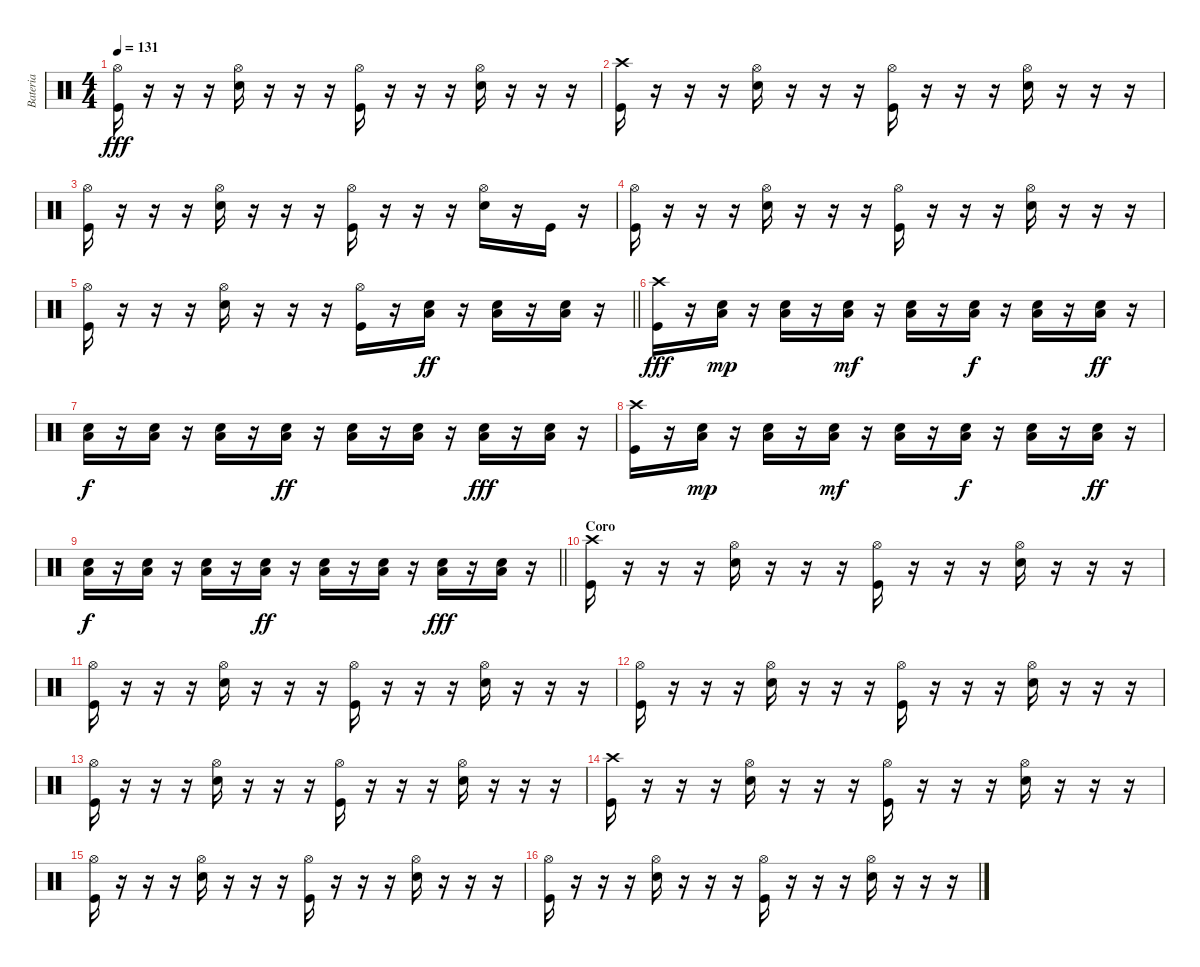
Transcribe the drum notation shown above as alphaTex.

\track ("Bateria" "Bateria") {instrument percussion}
\staff {score}
\articulation defaults
\ts (4 4)
\tempo 131
\clef neutral
\ks c
("Hi-Hat (open)" "Kick (hit)").16{dy fff} r.16 r.16 r.16 ("Hi-Hat (open)" "Electric Snare (hit)").16 r.16 r.16 r.16 ("Hi-Hat (open)" "Kick (hit)").16 r.16 r.16 r.16 ("Hi-Hat (open)" "Electric Snare (hit)").16 r.16 r.16 r.16 |
("Crash high (hit)" "Kick (hit)").16 r.16 r.16 r.16 ("Hi-Hat (open)" "Electric Snare (hit)").16 r.16 r.16 r.16 ("Hi-Hat (open)" "Kick (hit)").16 r.16 r.16 r.16 ("Hi-Hat (open)" "Electric Snare (hit)").16 r.16 r.16 r.16 |
("Hi-Hat (open)" "Kick (hit)").16 r.16 r.16 r.16 ("Hi-Hat (open)" "Electric Snare (hit)").16 r.16 r.16 r.16 ("Hi-Hat (open)" "Kick (hit)").16 r.16 r.16 r.16 ("Hi-Hat (open)" "Electric Snare (hit)").16 r.16 "Kick (hit)".16 r.16 |
("Hi-Hat (open)" "Kick (hit)").16 r.16 r.16 r.16 ("Hi-Hat (open)" "Electric Snare (hit)").16 r.16 r.16 r.16 ("Hi-Hat (open)" "Kick (hit)").16 r.16 r.16 r.16 ("Hi-Hat (open)" "Electric Snare (hit)").16 r.16 r.16 r.16 |
\barLineRight lightlight
("Hi-Hat (open)" "Kick (hit)").16 r.16 r.16 r.16 ("Hi-Hat (open)" "Electric Snare (hit)").16 r.16 r.16 r.16 ("Hi-Hat (open)" "Kick (hit)").16 r.16 ("Electric Snare (hit)" "Low Floor Tom (hit)").16{dy ff} r.16 ("Electric Snare (hit)" "Low Floor Tom (hit)").16 r.16 ("Electric Snare (hit)" "Low Floor Tom (hit)").16 r.16 |
("Crash high (hit)" "Kick (hit)").16{dy fff} r.16 ("Electric Snare (hit)" "Low Floor Tom (hit)").16{dy mp} r.16 ("Electric Snare (hit)" "Low Floor Tom (hit)").16 r.16 ("Electric Snare (hit)" "Low Floor Tom (hit)").16{dy mf} r.16 ("Electric Snare (hit)" "Low Floor Tom (hit)").16 r.16 ("Electric Snare (hit)" "Low Floor Tom (hit)").16{dy f} r.16 ("Electric Snare (hit)" "Low Floor Tom (hit)").16 r.16 ("Electric Snare (hit)" "Low Floor Tom (hit)").16{dy ff} r.16 |
("Electric Snare (hit)" "Low Floor Tom (hit)").16{dy f} r.16 ("Electric Snare (hit)" "Low Floor Tom (hit)").16 r.16 ("Electric Snare (hit)" "Low Floor Tom (hit)").16 r.16 ("Electric Snare (hit)" "Low Floor Tom (hit)").16{dy ff} r.16 ("Electric Snare (hit)" "Low Floor Tom (hit)").16 r.16 ("Electric Snare (hit)" "Low Floor Tom (hit)").16 r.16 ("Electric Snare (hit)" "Low Floor Tom (hit)").16{dy fff} r.16 ("Electric Snare (hit)" "Low Floor Tom (hit)").16 r.16 |
("Crash high (hit)" "Kick (hit)").16 r.16 ("Electric Snare (hit)" "Low Floor Tom (hit)").16{dy mp} r.16 ("Electric Snare (hit)" "Low Floor Tom (hit)").16 r.16 ("Electric Snare (hit)" "Low Floor Tom (hit)").16{dy mf} r.16 ("Electric Snare (hit)" "Low Floor Tom (hit)").16 r.16 ("Electric Snare (hit)" "Low Floor Tom (hit)").16{dy f} r.16 ("Electric Snare (hit)" "Low Floor Tom (hit)").16 r.16 ("Electric Snare (hit)" "Low Floor Tom (hit)").16{dy ff} r.16 |
\barLineRight lightlight
("Electric Snare (hit)" "Low Floor Tom (hit)").16{dy f} r.16 ("Electric Snare (hit)" "Low Floor Tom (hit)").16 r.16 ("Electric Snare (hit)" "Low Floor Tom (hit)").16 r.16 ("Electric Snare (hit)" "Low Floor Tom (hit)").16{dy ff} r.16 ("Electric Snare (hit)" "Low Floor Tom (hit)").16 r.16 ("Electric Snare (hit)" "Low Floor Tom (hit)").16 r.16 ("Electric Snare (hit)" "Low Floor Tom (hit)").16{dy fff} r.16 ("Electric Snare (hit)" "Low Floor Tom (hit)").16 r.16 |
\section ("" "Coro")
("Crash high (hit)" "Kick (hit)").16 r.16 r.16 r.16 ("Hi-Hat (open)" "Electric Snare (hit)").16 r.16 r.16 r.16 ("Hi-Hat (open)" "Kick (hit)").16 r.16 r.16 r.16 ("Hi-Hat (open)" "Electric Snare (hit)").16 r.16 r.16 r.16 |
("Hi-Hat (open)" "Kick (hit)").16 r.16 r.16 r.16 ("Hi-Hat (open)" "Electric Snare (hit)").16 r.16 r.16 r.16 ("Hi-Hat (open)" "Kick (hit)").16 r.16 r.16 r.16 ("Hi-Hat (open)" "Electric Snare (hit)").16 r.16 r.16 r.16 |
("Hi-Hat (open)" "Kick (hit)").16 r.16 r.16 r.16 ("Hi-Hat (open)" "Electric Snare (hit)").16 r.16 r.16 r.16 ("Hi-Hat (open)" "Kick (hit)").16 r.16 r.16 r.16 ("Hi-Hat (open)" "Electric Snare (hit)").16 r.16 r.16 r.16 |
("Hi-Hat (open)" "Kick (hit)").16 r.16 r.16 r.16 ("Hi-Hat (open)" "Electric Snare (hit)").16 r.16 r.16 r.16 ("Hi-Hat (open)" "Kick (hit)").16 r.16 r.16 r.16 ("Hi-Hat (open)" "Electric Snare (hit)").16 r.16 r.16 r.16 |
("Crash high (hit)" "Kick (hit)").16 r.16 r.16 r.16 ("Hi-Hat (open)" "Electric Snare (hit)").16 r.16 r.16 r.16 ("Hi-Hat (open)" "Kick (hit)").16 r.16 r.16 r.16 ("Hi-Hat (open)" "Electric Snare (hit)").16 r.16 r.16 r.16 |
("Hi-Hat (open)" "Kick (hit)").16 r.16 r.16 r.16 ("Hi-Hat (open)" "Electric Snare (hit)").16 r.16 r.16 r.16 ("Hi-Hat (open)" "Kick (hit)").16 r.16 r.16 r.16 ("Hi-Hat (open)" "Electric Snare (hit)").16 r.16 r.16 r.16 |
("Hi-Hat (open)" "Kick (hit)").16 r.16 r.16 r.16 ("Hi-Hat (open)" "Electric Snare (hit)").16 r.16 r.16 r.16 ("Hi-Hat (open)" "Kick (hit)").16 r.16 r.16 r.16 ("Hi-Hat (open)" "Electric Snare (hit)").16 r.16 r.16 r.16
